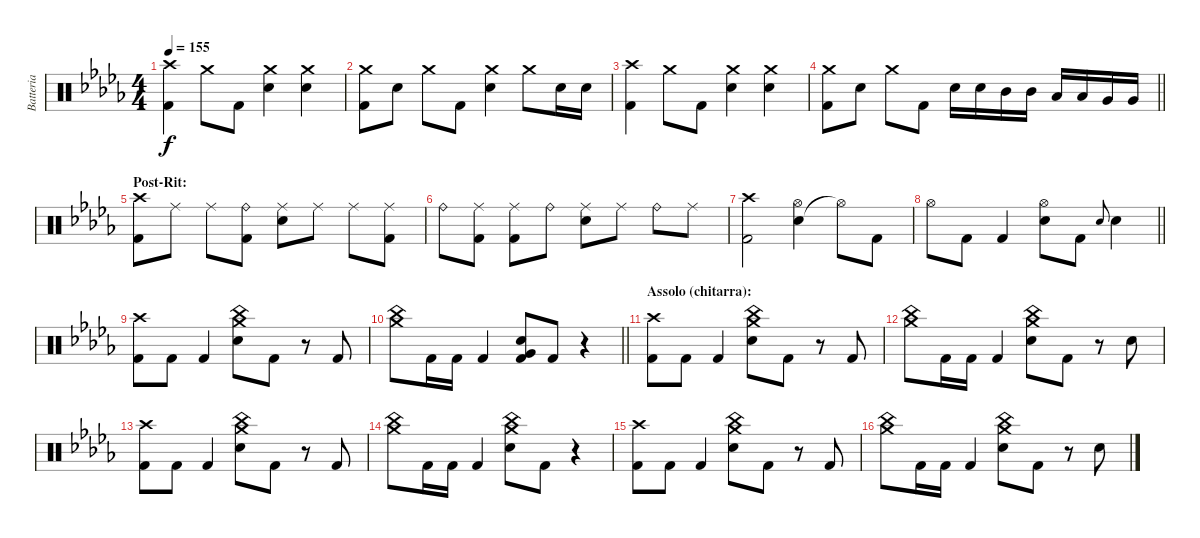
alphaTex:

\track ("Batteria" "Batteria") {instrument percussion}
\staff {score}
\articulation defaults
\ts (4 4)
\tempo 155
\clef neutral
\ks bbminor
("Kick (hit) 2" "Crash high (hit)").4{dy f} "Crash medium (hit)".8 "Kick (hit) 2".8 ("Snare (hit) 2" "Crash medium (hit)").4 ("Snare (hit) 2" "Crash medium (hit)").4 |
("Kick (hit) 2" "Crash medium (hit)").8 "Snare (hit) 2".8 "Crash medium (hit)".8 "Kick (hit) 2".8 ("Snare (hit) 2" "Crash medium (hit)").4 "Crash medium (hit)".8 "Snare (hit) 2".16 "Snare (hit) 2".16 |
("Kick (hit) 2" "Crash high (hit)").4 "Crash medium (hit)".8 "Kick (hit) 2".8 ("Snare (hit) 2" "Crash medium (hit)").4 ("Snare (hit) 2" "Crash medium (hit)").4 |
\barLineRight lightlight
("Kick (hit) 2" "Crash medium (hit)").8 "Snare (hit) 2".8 "Crash medium (hit)".8 "Kick (hit) 2".8 "Snare (hit) 2".16 "Snare (hit) 2".16 "Mid Tom (hit)".16 "Mid Tom (hit)".16 "Low Tom (hit)".16 "Low Tom (hit)".16 "Very Low Tom (hit)".16 "Very Low Tom (hit)".16 |
\section ("" "Post-Rit:")
("Kick (hit) 2" "Crash high (hit)").8 "Ride (middle)".8 "Ride (middle)".8 ("Kick (hit) 2" "Ride (bell)").8 ("Snare (hit) 2" "Ride (middle)").8 "Ride (middle)".8 "Ride (middle)".8 ("Kick (hit) 2" "Ride (middle)").8 |
"Ride (bell)".8 ("Kick (hit) 2" "Ride (middle)").8 ("Kick (hit) 2" "Ride (middle)").8 "Ride (bell)".8 ("Snare (hit) 2" "Ride (middle)").8 "Ride (middle)".8 "Ride (bell)".8 "Ride (middle)".8 |
("Kick (hit) 2" "Crash high (hit)").2 ("Snare (hit) 2" "Hi-Hat (open)").4 "Hi-Hat (open)"{t}.8 "Kick (hit) 2".8 |
\barLineRight lightlight "Hi-Hat (open)".8 "Kick (hit) 2".8 "Kick (hit) 2".4
("Snare (hit) 2" "Hi-Hat (open)").8 "Kick (hit) 2".8 "Snare (hit) 2".8{gr onbeat} "Snare (hit) 2".4 |
("Kick (hit) 2" "Crash high (hit)").8 "Kick (hit) 2".8 "Kick (hit) 2".4 ("Snare (hit) 2" "China (hit)" "Crash medium (hit)").8 "Kick (hit) 2".8 r.8 "Kick (hit) 2".8 |
\barLineRight lightlight
("China (hit)" "Crash medium (hit)").8 "Kick (hit) 2".16 "Kick (hit) 2".16 "Kick (hit) 2".4 ("Kick (hit) 2" "Snare (hit) 2" "Very Low Tom (hit)").8 "Kick (hit) 2".8 r.4 |
\section ("" "Assolo (chitarra):")
("Kick (hit) 2" "Crash high (hit)").8 "Kick (hit) 2".8 "Kick (hit) 2".4 ("Snare (hit) 2" "China (hit)" "Crash medium (hit)").8 "Kick (hit) 2".8 r.8 "Kick (hit) 2".8 |
("China (hit)" "Crash medium (hit)").8 "Kick (hit) 2".16 "Kick (hit) 2".16 "Kick (hit) 2".4 ("Snare (hit) 2" "China (hit)" "Crash medium (hit)").8 "Kick (hit) 2".8 r.8 "Snare (hit) 2".8 |
("Kick (hit) 2" "Crash high (hit)").8 "Kick (hit) 2".8 "Kick (hit) 2".4 ("Snare (hit) 2" "China (hit)" "Crash medium (hit)").8 "Kick (hit) 2".8 r.8 "Kick (hit) 2".8 |
("China (hit)" "Crash medium (hit)").8 "Kick (hit) 2".16 "Kick (hit) 2".16 "Kick (hit) 2".4 ("Snare (hit) 2" "China (hit)" "Crash medium (hit)").8 "Kick (hit) 2".8 r.4 |
("Kick (hit) 2" "Crash high (hit)").8 "Kick (hit) 2".8 "Kick (hit) 2".4 ("Snare (hit) 2" "China (hit)" "Crash medium (hit)").8 "Kick (hit) 2".8 r.8 "Kick (hit) 2".8 |
("China (hit)" "Crash medium (hit)").8 "Kick (hit) 2".16 "Kick (hit) 2".16 "Kick (hit) 2".4 ("Snare (hit) 2" "China (hit)" "Crash medium (hit)").8 "Kick (hit) 2".8 r.8 "Snare (hit) 2".8
